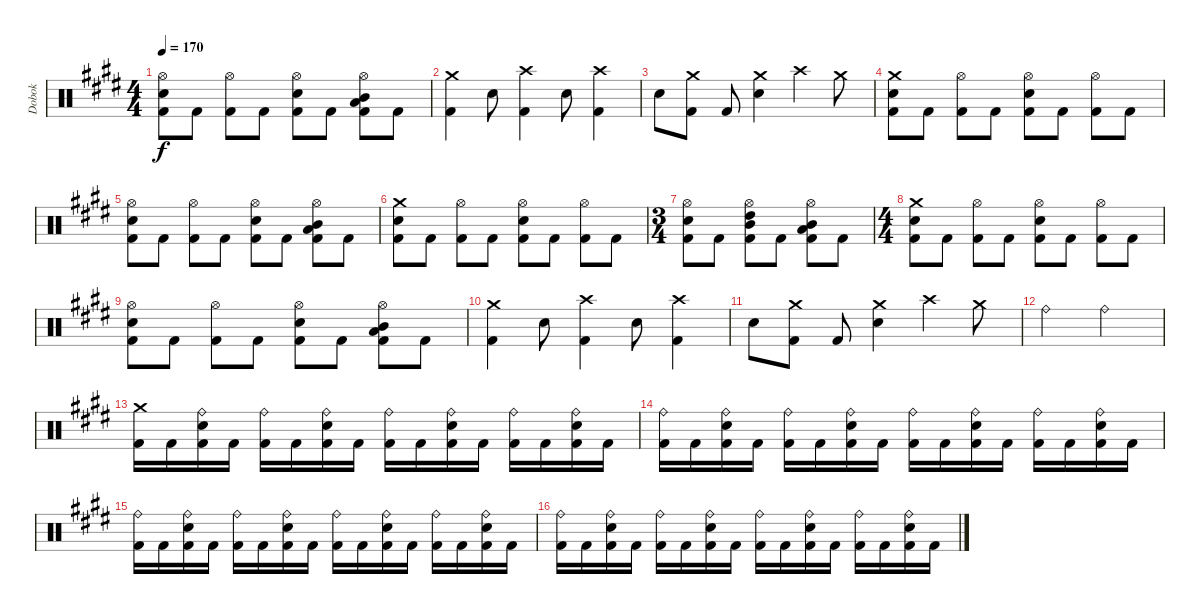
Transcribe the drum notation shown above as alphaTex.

\track ("Dobok" "Dobok") {instrument percussion}
\staff {score}
\articulation defaults
\ts (4 4)
\tempo 170
\clef neutral
\ks c#minor
("Hi-Hat (open)" "Snare (hit) 2" "Kick (hit) 2").8{dy f} "Kick (hit) 2".8 ("Hi-Hat (open)" "Kick (hit) 2").8 "Kick (hit) 2".8 ("Hi-Hat (open)" "Snare (hit) 2" "Kick (hit) 2").8 "Kick (hit) 2".8 ("Hi-Hat (open)" "Low Tom (hit)" "Mid Tom (hit)" "Kick (hit) 2").8 "Kick (hit) 2".8 |
("Crash medium (hit)" "Kick (hit) 2").4 "Snare (hit) 2".8 ("Crash high (hit)" "Kick (hit) 2").4 "Snare (hit) 2".8 ("Crash high (hit)" "Kick (hit) 2").4 |
"Snare (hit) 2".8 ("Crash medium (hit)" "Kick (hit) 2").8 "Kick (hit) 2".8 ("Crash medium (hit)" "Snare (hit) 2").4 "Crash high (hit)".4 "Crash medium (hit)".8 |
("Crash medium (hit)" "Snare (hit) 2" "Kick (hit) 2").8 "Kick (hit) 2".8 ("Hi-Hat (open)" "Kick (hit) 2").8 "Kick (hit) 2".8 ("Hi-Hat (open)" "Snare (hit) 2" "Kick (hit) 2").8 "Kick (hit) 2".8 ("Hi-Hat (open)" "Kick (hit) 2").8 "Kick (hit) 2".8 |
("Hi-Hat (open)" "Snare (hit) 2" "Kick (hit) 2").8 "Kick (hit) 2".8 ("Hi-Hat (open)" "Kick (hit) 2").8 "Kick (hit) 2".8 ("Hi-Hat (open)" "Snare (hit) 2" "Kick (hit) 2").8 "Kick (hit) 2".8 ("Hi-Hat (open)" "Low Tom (hit)" "Mid Tom (hit)" "Kick (hit) 2").8 "Kick (hit) 2".8 |
("Crash medium (hit)" "Snare (hit) 2" "Kick (hit) 2").8 "Kick (hit) 2".8 ("Hi-Hat (open)" "Kick (hit) 2").8 "Kick (hit) 2".8 ("Hi-Hat (open)" "Snare (hit) 2" "Kick (hit) 2").8 "Kick (hit) 2".8 ("Hi-Hat (open)" "Kick (hit) 2").8 "Kick (hit) 2".8 |
\ts (3 4)
("Hi-Hat (open)" "Snare (hit) 2" "Kick (hit) 2").8 "Kick (hit) 2".8 ("Hi-Hat (open)" "High Tom (hit)" "Mid Tom (hit)" "Kick (hit) 2").8 "Kick (hit) 2".8 ("Hi-Hat (open)" "Mid Tom (hit)" "Low Tom (hit)" "Kick (hit) 2").8 "Kick (hit) 2".8 |
\ts (4 4)
("Crash medium (hit)" "Snare (hit) 2" "Kick (hit) 2").8 "Kick (hit) 2".8 ("Hi-Hat (open)" "Kick (hit) 2").8 "Kick (hit) 2".8 ("Hi-Hat (open)" "Snare (hit) 2" "Kick (hit) 2").8 "Kick (hit) 2".8 ("Hi-Hat (open)" "Kick (hit) 2").8 "Kick (hit) 2".8 |
("Hi-Hat (open)" "Snare (hit) 2" "Kick (hit) 2").8 "Kick (hit) 2".8 ("Hi-Hat (open)" "Kick (hit) 2").8 "Kick (hit) 2".8 ("Hi-Hat (open)" "Snare (hit) 2" "Kick (hit) 2").8 "Kick (hit) 2".8 ("Hi-Hat (open)" "Low Tom (hit)" "Mid Tom (hit)" "Kick (hit) 2").8 "Kick (hit) 2".8 |
("Crash medium (hit)" "Kick (hit) 2").4 "Snare (hit) 2".8 ("Crash high (hit)" "Kick (hit) 2").4 "Snare (hit) 2".8 ("Crash high (hit)" "Kick (hit) 2").4 |
"Snare (hit) 2".8 ("Crash medium (hit)" "Kick (hit) 2").8 "Kick (hit) 2".8 ("Crash medium (hit)" "Snare (hit) 2").4 "Crash high (hit)".4 "Crash medium (hit)".8 |
"Ride (bell)".2 "Ride (bell)".2 |
("Crash medium (hit)" "Kick (hit) 2").16 "Kick (hit) 2".16 ("Ride (bell)" "Snare (hit) 2" "Kick (hit) 2").16 "Kick (hit) 2".16 ("Ride (bell)" "Kick (hit) 2").16 "Kick (hit) 2".16 ("Ride (bell)" "Snare (hit) 2" "Kick (hit) 2").16 "Kick (hit) 2".16 ("Ride (bell)" "Kick (hit) 2").16 "Kick (hit) 2".16 ("Ride (bell)" "Snare (hit) 2" "Kick (hit) 2").16 "Kick (hit) 2".16 ("Ride (bell)" "Kick (hit) 2").16 "Kick (hit) 2".16 ("Ride (bell)" "Snare (hit) 2" "Kick (hit) 2").16 "Kick (hit) 2".16 |
("Ride (bell)" "Kick (hit) 2").16 "Kick (hit) 2".16 ("Ride (bell)" "Snare (hit) 2" "Kick (hit) 2").16 "Kick (hit) 2".16 ("Ride (bell)" "Kick (hit) 2").16 "Kick (hit) 2".16 ("Ride (bell)" "Snare (hit) 2" "Kick (hit) 2").16 "Kick (hit) 2".16 ("Ride (bell)" "Kick (hit) 2").16 "Kick (hit) 2".16 ("Ride (bell)" "Snare (hit) 2" "Kick (hit) 2").16 "Kick (hit) 2".16 ("Ride (bell)" "Kick (hit) 2").16 "Kick (hit) 2".16 ("Ride (bell)" "Snare (hit) 2" "Kick (hit) 2").16 "Kick (hit) 2".16 |
("Ride (bell)" "Kick (hit) 2").16 "Kick (hit) 2".16 ("Ride (bell)" "Snare (hit) 2" "Kick (hit) 2").16 "Kick (hit) 2".16 ("Ride (bell)" "Kick (hit) 2").16 "Kick (hit) 2".16 ("Ride (bell)" "Snare (hit) 2" "Kick (hit) 2").16 "Kick (hit) 2".16 ("Ride (bell)" "Kick (hit) 2").16 "Kick (hit) 2".16 ("Ride (bell)" "Snare (hit) 2" "Kick (hit) 2").16 "Kick (hit) 2".16 ("Ride (bell)" "Kick (hit) 2").16 "Kick (hit) 2".16 ("Ride (bell)" "Snare (hit) 2" "Kick (hit) 2").16 "Kick (hit) 2".16 |
("Ride (bell)" "Kick (hit) 2").16 "Kick (hit) 2".16 ("Ride (bell)" "Snare (hit) 2" "Kick (hit) 2").16 "Kick (hit) 2".16 ("Ride (bell)" "Kick (hit) 2").16 "Kick (hit) 2".16 ("Ride (bell)" "Snare (hit) 2" "Kick (hit) 2").16 "Kick (hit) 2".16 ("Ride (bell)" "Kick (hit) 2").16 "Kick (hit) 2".16 ("Ride (bell)" "Snare (hit) 2" "Kick (hit) 2").16 "Kick (hit) 2".16 ("Ride (bell)" "Kick (hit) 2").16 "Kick (hit) 2".16 ("Ride (bell)" "Snare (hit) 2" "Kick (hit) 2").16 "Kick (hit) 2".16
